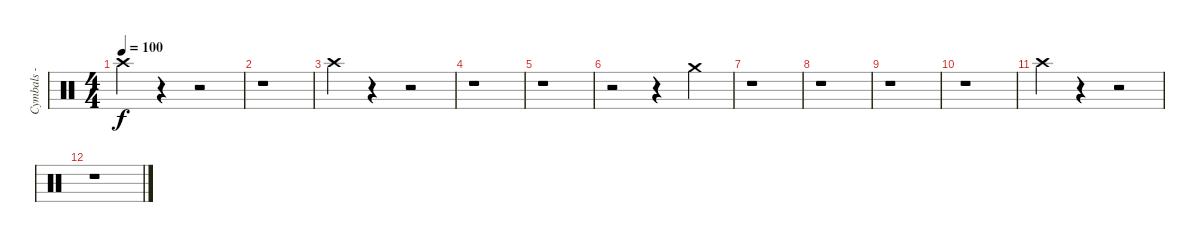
\track ("Cymbals - crash - left" "Cymbals - ") {instrument percussion}
\staff {score}
\articulation defaults
\ts (4 4)
\tempo 100
\clef neutral
\ks c "Crash high (hit)".4{dy f}
r.4 r.2 |
r.1 |
"Crash high (hit)".4 r.4 r.2 |
r.1 |
r.1 |
r.2 r.4 "Crash medium (hit)".4 |
r.1 |
r.1 |
r.1 |
r.1 |
"Crash high (hit)".4 r.4 r.2 |
r.1
